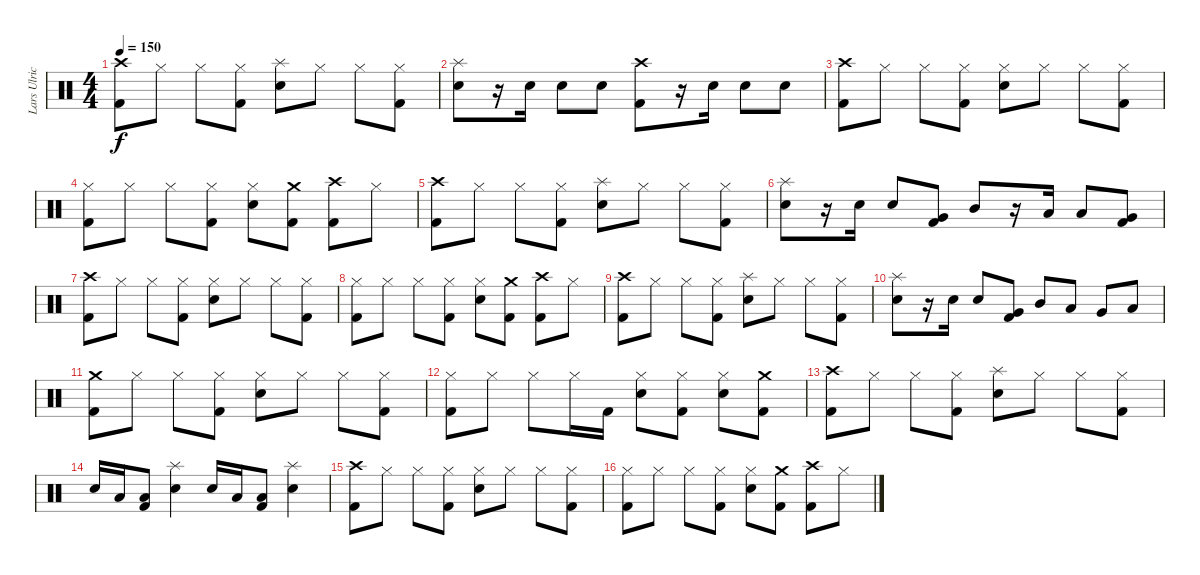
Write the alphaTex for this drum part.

\track ("Lars Ulrich" "Lars Ulric") {instrument percussion}
\staff {score}
\articulation defaults
\ts (4 4)
\tempo 150
\clef neutral
\ks c
("Crash high (hit)" "Kick (hit) 2").8{dy f} "Hi-Hat (closed)".8 "Hi-Hat (closed)".8 ("Hi-Hat (closed)" "Kick (hit) 2").8 ("Splash (hit)" "Snare (hit) 2").8 "Hi-Hat (closed)".8 "Hi-Hat (closed)".8 ("Hi-Hat (closed)" "Kick (hit) 2").8 |
("Splash (hit)" "Snare (hit) 2").8 r.16 "Snare (hit) 2".16 "Snare (hit) 2".8 "Snare (hit) 2".8 ("Crash high (hit)" "Kick (hit) 2").8 r.16 "Snare (hit) 2".16 "Snare (hit) 2".8 "Snare (hit) 2".8 |
("Crash high (hit)" "Kick (hit) 2").8 "Hi-Hat (closed)".8 "Hi-Hat (closed)".8 ("Hi-Hat (closed)" "Kick (hit) 2").8 ("Hi-Hat (closed)" "Snare (hit) 2").8 "Hi-Hat (closed)".8 "Hi-Hat (closed)".8 ("Hi-Hat (closed)" "Kick (hit) 2").8 |
("Hi-Hat (closed)" "Kick (hit) 2").8 "Hi-Hat (closed)".8 "Hi-Hat (closed)".8 ("Hi-Hat (closed)" "Kick (hit) 2").8 ("Hi-Hat (closed)" "Snare (hit) 2").8 ("Crash medium (hit)" "Kick (hit) 2").8 ("Crash high (hit)" "Kick (hit) 2").8 "Hi-Hat (closed)".8 |
("Crash high (hit)" "Kick (hit) 2").8 "Hi-Hat (closed)".8 "Hi-Hat (closed)".8 ("Hi-Hat (closed)" "Kick (hit) 2").8 ("Splash (hit)" "Snare (hit) 2").8 "Hi-Hat (closed)".8 "Hi-Hat (closed)".8 ("Hi-Hat (closed)" "Kick (hit) 2").8 |
("Splash (hit)" "Snare (hit) 2").8 r.16 "Snare (hit) 2".16 "Snare (hit) 2".8 ("Very Low Tom (hit)" "Kick (hit) 2").8 "Mid Tom (hit)".8 r.16 "Low Tom (hit)".16 "Low Tom (hit)".8 ("Very Low Tom (hit)" "Kick (hit) 2").8 |
("Crash high (hit)" "Kick (hit) 2").8 "Hi-Hat (closed)".8 "Hi-Hat (closed)".8 ("Hi-Hat (closed)" "Kick (hit) 2").8 ("Hi-Hat (closed)" "Snare (hit) 2").8 "Hi-Hat (closed)".8 "Hi-Hat (closed)".8 ("Hi-Hat (closed)" "Kick (hit) 2").8 |
("Hi-Hat (closed)" "Kick (hit) 2").8 "Hi-Hat (closed)".8 "Hi-Hat (closed)".8 ("Hi-Hat (closed)" "Kick (hit) 2").8 ("Hi-Hat (closed)" "Snare (hit) 2").8 ("Crash medium (hit)" "Kick (hit) 2").8 ("Crash high (hit)" "Kick (hit) 2").8 "Hi-Hat (closed)".8 |
("Crash high (hit)" "Kick (hit) 2").8 "Hi-Hat (closed)".8 "Hi-Hat (closed)".8 ("Hi-Hat (closed)" "Kick (hit) 2").8 ("Splash (hit)" "Snare (hit) 2").8 "Hi-Hat (closed)".8 "Hi-Hat (closed)".8 ("Hi-Hat (closed)" "Kick (hit) 2").8 |
("Splash (hit)" "Snare (hit) 2").8 r.16 "Snare (hit) 2".16 "Snare (hit) 2".8 ("Very Low Tom (hit)" "Kick (hit) 2").8 "Mid Tom (hit)".8 "Low Tom (hit)".8 "Very Low Tom (hit)".8 "Low Floor Tom (hit)".8 |
("Crash medium (hit)" "Kick (hit) 2").8 "Hi-Hat (closed)".8 "Hi-Hat (closed)".8 ("Hi-Hat (closed)" "Kick (hit) 2").8 ("Hi-Hat (closed)" "Snare (hit) 2").8 "Hi-Hat (closed)".8 "Hi-Hat (closed)".8 ("Hi-Hat (closed)" "Kick (hit) 2").8 |
("Hi-Hat (closed)" "Kick (hit) 2").8 "Hi-Hat (closed)".8 "Hi-Hat (closed)".8 "Hi-Hat (closed)".16 "Kick (hit) 2".16 ("Hi-Hat (closed)" "Snare (hit) 2").8 ("Hi-Hat (closed)" "Kick (hit) 2").8 ("Hi-Hat (closed)" "Snare (hit) 2").8 ("Crash medium (hit)" "Kick (hit) 2").8 |
("Crash high (hit)" "Kick (hit) 2").8 "Hi-Hat (closed)".8 "Hi-Hat (closed)".8 ("Hi-Hat (closed)" "Kick (hit) 2").8 ("Splash (hit)" "Snare (hit) 2").8 "Hi-Hat (closed)".8 "Hi-Hat (closed)".8 ("Hi-Hat (closed)" "Kick (hit) 2").8 |
"Snare (hit) 2".16 "Low Tom (hit)".16 ("Low Tom (hit)" "Kick (hit) 2").8 ("Splash (hit)" "Snare (hit) 2").4 "Snare (hit) 2".16 "Low Tom (hit)".16 ("Low Tom (hit)" "Kick (hit) 2").8 ("Splash (hit)" "Snare (hit) 2").4 |
("Crash high (hit)" "Kick (hit) 2").8 "Hi-Hat (closed)".8 "Hi-Hat (closed)".8 ("Hi-Hat (closed)" "Kick (hit) 2").8 ("Hi-Hat (closed)" "Snare (hit) 2").8 "Hi-Hat (closed)".8 "Hi-Hat (closed)".8 ("Hi-Hat (closed)" "Kick (hit) 2").8 |
("Hi-Hat (closed)" "Kick (hit) 2").8 "Hi-Hat (closed)".8 "Hi-Hat (closed)".8 ("Hi-Hat (closed)" "Kick (hit) 2").8 ("Hi-Hat (closed)" "Snare (hit) 2").8 ("Crash medium (hit)" "Kick (hit) 2").8 ("Crash high (hit)" "Kick (hit) 2").8 "Hi-Hat (closed)".8
